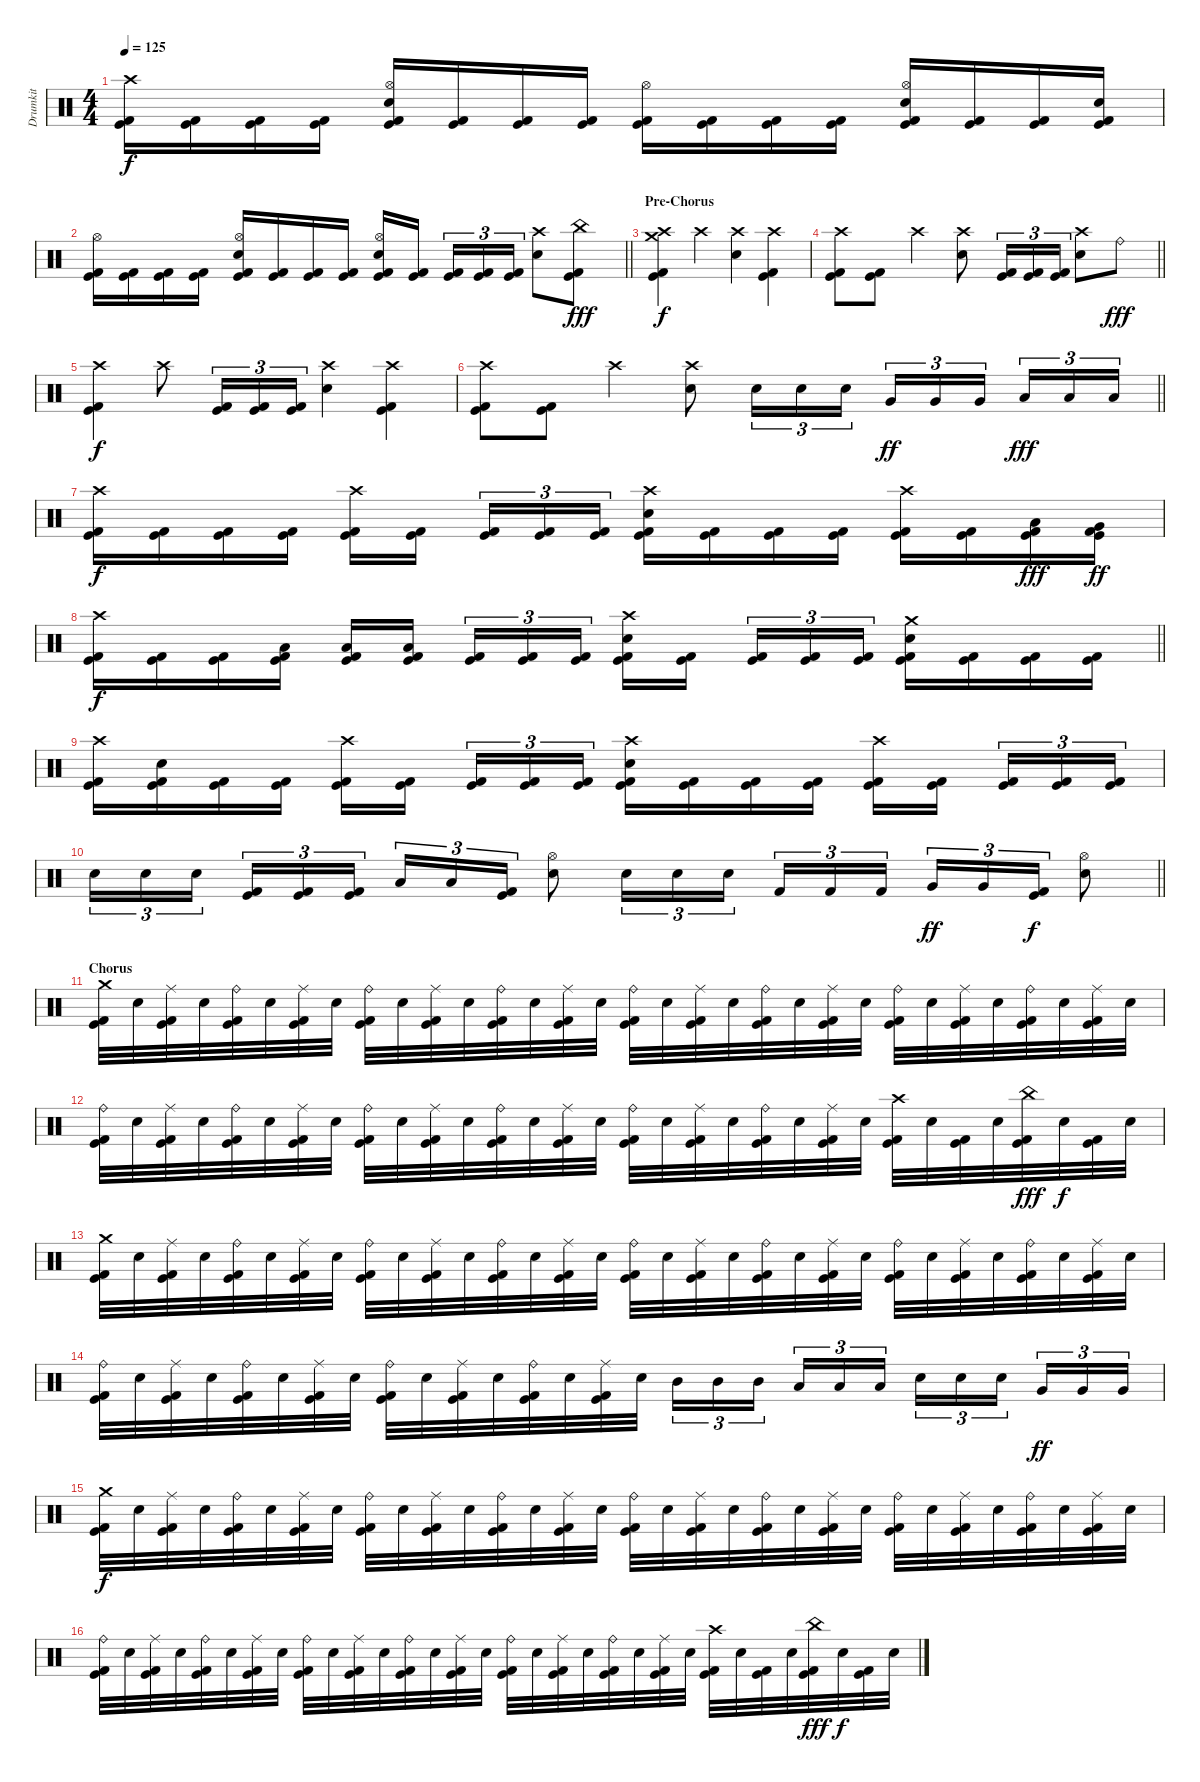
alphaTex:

\track ("Drumkit" "Drumkit") {instrument percussion}
\staff {score}
\articulation defaults
\ts (4 4)
\tempo 125
\clef neutral
\ks c
("Crash high (hit)" "Kick (hit)" "Kick (hit) 2").16{dy f} ("Kick (hit)" "Kick (hit) 2").16 ("Kick (hit)" "Kick (hit) 2").16 ("Kick (hit)" "Kick (hit) 2").16 ("Hi-Hat (open)" "Electric Snare (hit)" "Kick (hit)" "Kick (hit) 2").16 ("Kick (hit)" "Kick (hit) 2").16 ("Kick (hit)" "Kick (hit) 2").16 ("Kick (hit)" "Kick (hit) 2").16 ("Hi-Hat (open)" "Kick (hit)" "Kick (hit) 2").16 ("Kick (hit)" "Kick (hit) 2").16 ("Kick (hit)" "Kick (hit) 2").16 ("Kick (hit)" "Kick (hit) 2").16 ("Hi-Hat (open)" "Electric Snare (hit)" "Kick (hit)" "Kick (hit) 2").16 ("Kick (hit)" "Kick (hit) 2").16 ("Kick (hit)" "Kick (hit) 2").16 ("Electric Snare (hit)" "Kick (hit)" "Kick (hit) 2").16 |
\barLineRight lightlight
("Hi-Hat (open)" "Kick (hit)" "Kick (hit) 2").16 ("Kick (hit)" "Kick (hit) 2").16 ("Kick (hit)" "Kick (hit) 2").16 ("Kick (hit)" "Kick (hit) 2").16 ("Hi-Hat (open)" "Electric Snare (hit)" "Kick (hit)" "Kick (hit) 2").16 ("Kick (hit)" "Kick (hit) 2").16 ("Kick (hit)" "Kick (hit) 2").16 ("Kick (hit)" "Kick (hit) 2").16 ("Hi-Hat (open)" "Electric Snare (hit)" "Kick (hit)" "Kick (hit) 2").16 ("Kick (hit)" "Kick (hit) 2").16{beam splitsecondary} ("Kick (hit)" "Kick (hit) 2").16{tu (3 2)} ("Kick (hit)" "Kick (hit) 2").16{tu (3 2)} ("Kick (hit)" "Kick (hit) 2").16{tu (3 2)} ("Crash high (hit)" "Electric Snare (hit)").8 ("China (hit)" "Kick (hit)" "Kick (hit) 2").8{dy fff} |
\section ("" "Pre-Chorus")
("Crash high (hit)" "Crash medium (hit)" "Kick (hit)" "Kick (hit) 2").4{dy f} "Crash high (hit)".4 ("Crash high (hit)" "Electric Snare (hit)").4 ("Crash high (hit)" "Kick (hit)" "Kick (hit) 2").4 |
\barLineRight lightlight
("Crash high (hit)" "Kick (hit)" "Kick (hit) 2").8 ("Kick (hit)" "Kick (hit) 2").8 "Crash high (hit)".4 ("Crash high (hit)" "Electric Snare (hit)").8 ("Kick (hit)" "Kick (hit) 2").16{tu (3 2)} ("Kick (hit)" "Kick (hit) 2").16{tu (3 2)} ("Kick (hit)" "Kick (hit) 2").16{tu (3 2)} ("Crash high (hit)" "Electric Snare (hit)").8 "Ride (bell)".8{dy fff} |
("Crash high (hit)" "Kick (hit)" "Kick (hit) 2").4{dy f} "Crash high (hit)".8 ("Kick (hit)" "Kick (hit) 2").16{tu (3 2)} ("Kick (hit)" "Kick (hit) 2").16{tu (3 2)} ("Kick (hit)" "Kick (hit) 2").16{tu (3 2)} ("Crash high (hit)" "Electric Snare (hit)").4 ("Crash high (hit)" "Kick (hit)" "Kick (hit) 2").4 |
\barLineRight lightlight
("Crash high (hit)" "Kick (hit)" "Kick (hit) 2").8 ("Kick (hit)" "Kick (hit) 2").8 "Crash high (hit)".4 ("Crash high (hit)" "Electric Snare (hit)").8 "Electric Snare (hit)".16{tu (3 2)} "Electric Snare (hit)".16{tu (3 2)} "Electric Snare (hit)".16{tu (3 2)} "Very Low Tom (hit)".16{tu (3 2) dy ff} "Very Low Tom (hit)".16{tu (3 2)} "Very Low Tom (hit)".16{tu (3 2) beam splitsecondary} "Low Floor Tom (hit)".16{tu (3 2) dy fff} "Low Floor Tom (hit)".16{tu (3 2)} "Low Floor Tom (hit)".16{tu (3 2)} |
("Crash high (hit)" "Kick (hit)" "Kick (hit) 2").16{dy f} ("Kick (hit)" "Kick (hit) 2").16 ("Kick (hit)" "Kick (hit) 2").16 ("Kick (hit)" "Kick (hit) 2").16 ("Crash high (hit)" "Kick (hit)" "Kick (hit) 2").16 ("Kick (hit)" "Kick (hit) 2").16{beam splitsecondary} ("Kick (hit)" "Kick (hit) 2").16{tu (3 2)} ("Kick (hit)" "Kick (hit) 2").16{tu (3 2)} ("Kick (hit)" "Kick (hit) 2").16{tu (3 2)} ("Crash high (hit)" "Electric Snare (hit)" "Kick (hit)" "Kick (hit) 2").16 ("Kick (hit)" "Kick (hit) 2").16 ("Kick (hit)" "Kick (hit) 2").16 ("Kick (hit)" "Kick (hit) 2").16 ("Crash high (hit)" "Kick (hit)" "Kick (hit) 2").16 ("Kick (hit)" "Kick (hit) 2").16 ("Low Floor Tom (hit)" "Kick (hit)" "Kick (hit) 2").16{dy fff} ("Very Low Tom (hit)" "Kick (hit)" "Kick (hit) 2").16{dy ff} |
\barLineRight lightlight
("Crash high (hit)" "Kick (hit)" "Kick (hit) 2").16{dy f} ("Kick (hit)" "Kick (hit) 2").16 ("Kick (hit)" "Kick (hit) 2").16 ("Low Tom (hit)" "Kick (hit)" "Kick (hit) 2").16 ("Low Tom (hit)" "Kick (hit)" "Kick (hit) 2").16 ("Low Tom (hit)" "Kick (hit)" "Kick (hit) 2").16{beam splitsecondary} ("Kick (hit)" "Kick (hit) 2").16{tu (3 2)} ("Kick (hit)" "Kick (hit) 2").16{tu (3 2)} ("Kick (hit)" "Kick (hit) 2").16{tu (3 2)} ("Crash high (hit)" "Electric Snare (hit)" "Kick (hit)" "Kick (hit) 2").16 ("Kick (hit)" "Kick (hit) 2").16{beam splitsecondary} ("Kick (hit)" "Kick (hit) 2").16{tu (3 2)} ("Kick (hit)" "Kick (hit) 2").16{tu (3 2)} ("Kick (hit)" "Kick (hit) 2").16{tu (3 2)} ("Crash medium (hit)" "Electric Snare (hit)" "Kick (hit)" "Kick (hit) 2").16 ("Kick (hit)" "Kick (hit) 2").16 ("Kick (hit)" "Kick (hit) 2").16 ("Kick (hit)" "Kick (hit) 2").16 |
("Crash high (hit)" "Kick (hit)" "Kick (hit) 2").16 ("Electric Snare (hit)" "Kick (hit)" "Kick (hit) 2").16 ("Kick (hit)" "Kick (hit) 2").16 ("Kick (hit)" "Kick (hit) 2").16 ("Crash high (hit)" "Kick (hit)" "Kick (hit) 2").16 ("Kick (hit)" "Kick (hit) 2").16{beam splitsecondary} ("Kick (hit)" "Kick (hit) 2").16{tu (3 2)} ("Kick (hit)" "Kick (hit) 2").16{tu (3 2)} ("Kick (hit)" "Kick (hit) 2").16{tu (3 2)} ("Crash high (hit)" "Electric Snare (hit)" "Kick (hit)" "Kick (hit) 2").16 ("Kick (hit)" "Kick (hit) 2").16 ("Kick (hit)" "Kick (hit) 2").16 ("Kick (hit)" "Kick (hit) 2").16 ("Crash high (hit)" "Kick (hit)" "Kick (hit) 2").16 ("Kick (hit)" "Kick (hit) 2").16{beam splitsecondary} ("Kick (hit)" "Kick (hit) 2").16{tu (3 2)} ("Kick (hit)" "Kick (hit) 2").16{tu (3 2)} ("Kick (hit)" "Kick (hit) 2").16{tu (3 2)} |
\barLineRight lightlight "Electric Snare (hit)".16{tu (3 2)} "Electric Snare (hit)".16{tu (3 2)} "Electric Snare (hit)".16{tu (3 2) beam splitsecondary}
("Kick (hit)" "Kick (hit) 2").16{tu (3 2)} ("Kick (hit)" "Kick (hit) 2").16{tu (3 2)} ("Kick (hit)" "Kick (hit) 2").16{tu (3 2)} "Low Tom (hit)".16{tu (3 2)} "Low Tom (hit)".16{tu (3 2)} ("Kick (hit)" "Kick (hit) 2").16{tu (3 2)} ("Hi-Hat (open)" "Electric Snare (hit)").8 "Electric Snare (hit)".16{tu (3 2)} "Electric Snare (hit)".16{tu (3 2)} "Electric Snare (hit)".16{tu (3 2) beam splitsecondary} "Kick (hit) 2".16{tu (3 2)} "Kick (hit) 2".16{tu (3 2)} "Kick (hit) 2".16{tu (3 2)} "Very Low Tom (hit)".16{tu (3 2) dy ff} "Very Low Tom (hit)".16{tu (3 2)} ("Kick (hit)" "Kick (hit) 2").16{tu (3 2) dy f} ("Hi-Hat (open)" "Electric Snare (hit)").8 |
\section ("" "Chorus")
("Crash medium (hit)" "Kick (hit)" "Kick (hit) 2").32 "Electric Snare (hit)".32 ("Ride (middle)" "Kick (hit)" "Kick (hit) 2").32 "Electric Snare (hit)".32 ("Ride (bell)" "Kick (hit)" "Kick (hit) 2").32 "Electric Snare (hit)".32 ("Ride (middle)" "Kick (hit)" "Kick (hit) 2").32 "Electric Snare (hit)".32 ("Ride (bell)" "Kick (hit)" "Kick (hit) 2").32 "Electric Snare (hit)".32 ("Ride (middle)" "Kick (hit)" "Kick (hit) 2").32 "Electric Snare (hit)".32 ("Ride (bell)" "Kick (hit)" "Kick (hit) 2").32 "Electric Snare (hit)".32 ("Ride (middle)" "Kick (hit)" "Kick (hit) 2").32 "Electric Snare (hit)".32 ("Ride (bell)" "Kick (hit)" "Kick (hit) 2").32 "Electric Snare (hit)".32 ("Ride (middle)" "Kick (hit)" "Kick (hit) 2").32 "Electric Snare (hit)".32 ("Ride (bell)" "Kick (hit)" "Kick (hit) 2").32 "Electric Snare (hit)".32 ("Ride (middle)" "Kick (hit)" "Kick (hit) 2").32 "Electric Snare (hit)".32 ("Ride (bell)" "Kick (hit)" "Kick (hit) 2").32 "Electric Snare (hit)".32 ("Ride (middle)" "Kick (hit)" "Kick (hit) 2").32 "Electric Snare (hit)".32 ("Ride (bell)" "Kick (hit)" "Kick (hit) 2").32 "Electric Snare (hit)".32 ("Ride (middle)" "Kick (hit)" "Kick (hit) 2").32 "Electric Snare (hit)".32 |
("Ride (bell)" "Kick (hit)" "Kick (hit) 2").32 "Electric Snare (hit)".32 ("Ride (middle)" "Kick (hit)" "Kick (hit) 2").32 "Electric Snare (hit)".32 ("Ride (bell)" "Kick (hit)" "Kick (hit) 2").32 "Electric Snare (hit)".32 ("Ride (middle)" "Kick (hit)" "Kick (hit) 2").32 "Electric Snare (hit)".32 ("Ride (bell)" "Kick (hit)" "Kick (hit) 2").32 "Electric Snare (hit)".32 ("Ride (middle)" "Kick (hit)" "Kick (hit) 2").32 "Electric Snare (hit)".32 ("Ride (bell)" "Kick (hit)" "Kick (hit) 2").32 "Electric Snare (hit)".32 ("Ride (middle)" "Kick (hit)" "Kick (hit) 2").32 "Electric Snare (hit)".32 ("Ride (bell)" "Kick (hit)" "Kick (hit) 2").32 "Electric Snare (hit)".32 ("Ride (middle)" "Kick (hit)" "Kick (hit) 2").32 "Electric Snare (hit)".32 ("Ride (bell)" "Kick (hit)" "Kick (hit) 2").32 "Electric Snare (hit)".32 ("Ride (middle)" "Kick (hit)" "Kick (hit) 2").32 "Electric Snare (hit)".32 ("Crash high (hit)" "Kick (hit)" "Kick (hit) 2").32 "Electric Snare (hit)".32 ("Kick (hit)" "Kick (hit) 2").32 "Electric Snare (hit)".32 ("China (hit)" "Kick (hit)" "Kick (hit) 2").32{dy fff} "Electric Snare (hit)".32{dy f} ("Kick (hit)" "Kick (hit) 2").32 "Electric Snare (hit)".32 |
("Crash medium (hit)" "Kick (hit)" "Kick (hit) 2").32 "Electric Snare (hit)".32 ("Ride (middle)" "Kick (hit)" "Kick (hit) 2").32 "Electric Snare (hit)".32 ("Ride (bell)" "Kick (hit)" "Kick (hit) 2").32 "Electric Snare (hit)".32 ("Ride (middle)" "Kick (hit)" "Kick (hit) 2").32 "Electric Snare (hit)".32 ("Ride (bell)" "Kick (hit)" "Kick (hit) 2").32 "Electric Snare (hit)".32 ("Ride (middle)" "Kick (hit)" "Kick (hit) 2").32 "Electric Snare (hit)".32 ("Ride (bell)" "Kick (hit)" "Kick (hit) 2").32 "Electric Snare (hit)".32 ("Ride (middle)" "Kick (hit)" "Kick (hit) 2").32 "Electric Snare (hit)".32 ("Ride (bell)" "Kick (hit)" "Kick (hit) 2").32 "Electric Snare (hit)".32 ("Ride (middle)" "Kick (hit)" "Kick (hit) 2").32 "Electric Snare (hit)".32 ("Ride (bell)" "Kick (hit)" "Kick (hit) 2").32 "Electric Snare (hit)".32 ("Ride (middle)" "Kick (hit)" "Kick (hit) 2").32 "Electric Snare (hit)".32 ("Ride (bell)" "Kick (hit)" "Kick (hit) 2").32 "Electric Snare (hit)".32 ("Ride (middle)" "Kick (hit)" "Kick (hit) 2").32 "Electric Snare (hit)".32 ("Ride (bell)" "Kick (hit)" "Kick (hit) 2").32 "Electric Snare (hit)".32 ("Ride (middle)" "Kick (hit)" "Kick (hit) 2").32 "Electric Snare (hit)".32 |
("Ride (bell)" "Kick (hit)" "Kick (hit) 2").32 "Electric Snare (hit)".32 ("Ride (middle)" "Kick (hit)" "Kick (hit) 2").32 "Electric Snare (hit)".32 ("Ride (bell)" "Kick (hit)" "Kick (hit) 2").32 "Electric Snare (hit)".32 ("Ride (middle)" "Kick (hit)" "Kick (hit) 2").32 "Electric Snare (hit)".32 ("Ride (bell)" "Kick (hit)" "Kick (hit) 2").32 "Electric Snare (hit)".32 ("Ride (middle)" "Kick (hit)" "Kick (hit) 2").32 "Electric Snare (hit)".32 ("Ride (bell)" "Kick (hit)" "Kick (hit) 2").32 "Electric Snare (hit)".32 ("Ride (middle)" "Kick (hit)" "Kick (hit) 2").32 "Electric Snare (hit)".32 "Mid Tom (hit)".16{tu (3 2)} "Mid Tom (hit)".16{tu (3 2)} "Mid Tom (hit)".16{tu (3 2) beam splitsecondary} "Low Tom (hit)".16{tu (3 2)} "Low Tom (hit)".16{tu (3 2)} "Low Tom (hit)".16{tu (3 2)} "Electric Snare (hit)".16{tu (3 2)} "Electric Snare (hit)".16{tu (3 2)} "Electric Snare (hit)".16{tu (3 2) beam splitsecondary} "Very Low Tom (hit)".16{tu (3 2) dy ff} "Very Low Tom (hit)".16{tu (3 2)} "Very Low Tom (hit)".16{tu (3 2)} |
("Crash medium (hit)" "Kick (hit)" "Kick (hit) 2").32{dy f} "Electric Snare (hit)".32 ("Ride (middle)" "Kick (hit)" "Kick (hit) 2").32 "Electric Snare (hit)".32 ("Ride (bell)" "Kick (hit)" "Kick (hit) 2").32 "Electric Snare (hit)".32 ("Ride (middle)" "Kick (hit)" "Kick (hit) 2").32 "Electric Snare (hit)".32 ("Ride (bell)" "Kick (hit)" "Kick (hit) 2").32 "Electric Snare (hit)".32 ("Ride (middle)" "Kick (hit)" "Kick (hit) 2").32 "Electric Snare (hit)".32 ("Ride (bell)" "Kick (hit)" "Kick (hit) 2").32 "Electric Snare (hit)".32 ("Ride (middle)" "Kick (hit)" "Kick (hit) 2").32 "Electric Snare (hit)".32 ("Ride (bell)" "Kick (hit)" "Kick (hit) 2").32 "Electric Snare (hit)".32 ("Ride (middle)" "Kick (hit)" "Kick (hit) 2").32 "Electric Snare (hit)".32 ("Ride (bell)" "Kick (hit)" "Kick (hit) 2").32 "Electric Snare (hit)".32 ("Ride (middle)" "Kick (hit)" "Kick (hit) 2").32 "Electric Snare (hit)".32 ("Ride (bell)" "Kick (hit)" "Kick (hit) 2").32 "Electric Snare (hit)".32 ("Ride (middle)" "Kick (hit)" "Kick (hit) 2").32 "Electric Snare (hit)".32 ("Ride (bell)" "Kick (hit)" "Kick (hit) 2").32 "Electric Snare (hit)".32 ("Ride (middle)" "Kick (hit)" "Kick (hit) 2").32 "Electric Snare (hit)".32 |
("Ride (bell)" "Kick (hit)" "Kick (hit) 2").32 "Electric Snare (hit)".32 ("Ride (middle)" "Kick (hit)" "Kick (hit) 2").32 "Electric Snare (hit)".32 ("Ride (bell)" "Kick (hit)" "Kick (hit) 2").32 "Electric Snare (hit)".32 ("Ride (middle)" "Kick (hit)" "Kick (hit) 2").32 "Electric Snare (hit)".32 ("Ride (bell)" "Kick (hit)" "Kick (hit) 2").32 "Electric Snare (hit)".32 ("Ride (middle)" "Kick (hit)" "Kick (hit) 2").32 "Electric Snare (hit)".32 ("Ride (bell)" "Kick (hit)" "Kick (hit) 2").32 "Electric Snare (hit)".32 ("Ride (middle)" "Kick (hit)" "Kick (hit) 2").32 "Electric Snare (hit)".32 ("Ride (bell)" "Kick (hit)" "Kick (hit) 2").32 "Electric Snare (hit)".32 ("Ride (middle)" "Kick (hit)" "Kick (hit) 2").32 "Electric Snare (hit)".32 ("Ride (bell)" "Kick (hit)" "Kick (hit) 2").32 "Electric Snare (hit)".32 ("Ride (middle)" "Kick (hit)" "Kick (hit) 2").32 "Electric Snare (hit)".32 ("Crash high (hit)" "Kick (hit)" "Kick (hit) 2").32 "Electric Snare (hit)".32 ("Kick (hit)" "Kick (hit) 2").32 "Electric Snare (hit)".32 ("China (hit)" "Kick (hit)" "Kick (hit) 2").32{dy fff} "Electric Snare (hit)".32{dy f} ("Kick (hit)" "Kick (hit) 2").32 "Electric Snare (hit)".32
